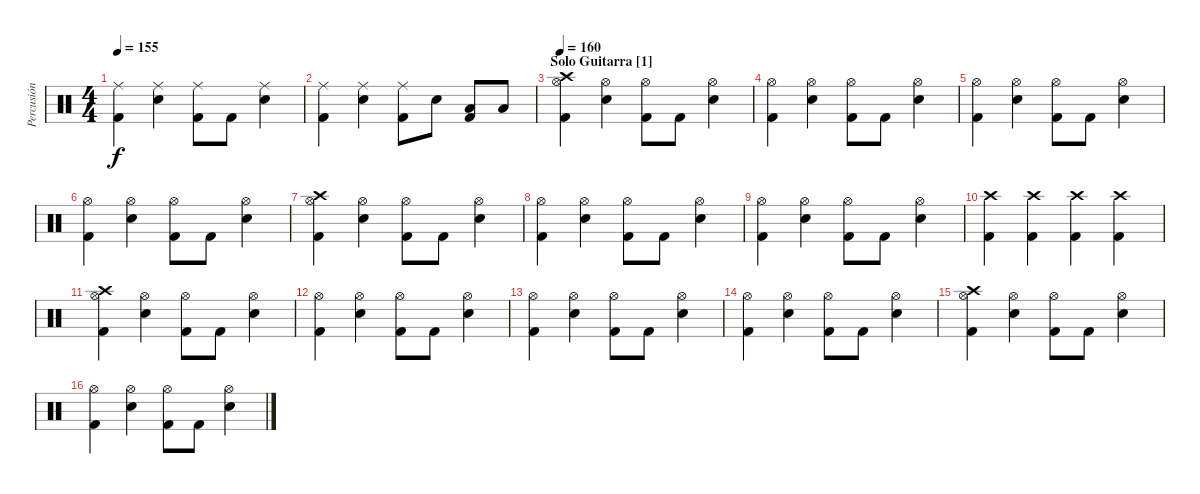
\track ("Percusión" "Percusión") {instrument percussion}
\staff {score}
\articulation defaults
\ts (4 4)
\tempo 155
\clef neutral
\ks c
("Ride (middle)" "Kick (hit) 2").4{dy f} ("Ride (middle)" "Snare (hit) 2").4 ("Ride (middle)" "Kick (hit) 2").8 "Kick (hit) 2".8 ("Ride (middle)" "Snare (hit) 2").4 |
("Ride (middle)" "Kick (hit) 2").4 ("Ride (middle)" "Snare (hit) 2").4 ("Ride (middle)" "Kick (hit) 2").8 "Snare (hit) 2".8 ("Low Floor Tom (hit)" "Kick (hit) 2").8 "Low Floor Tom (hit)".8 |
\section ("" "Solo Guitarra [1]")
\tempo 160
("Crash high (hit)" "Hi-Hat (open)" "Kick (hit) 2").4 ("Hi-Hat (open)" "Snare (hit) 2").4 ("Hi-Hat (open)" "Kick (hit) 2").8 "Kick (hit) 2".8 ("Hi-Hat (open)" "Snare (hit) 2").4 |
("Hi-Hat (open)" "Kick (hit) 2").4 ("Hi-Hat (open)" "Snare (hit) 2").4 ("Hi-Hat (open)" "Kick (hit) 2").8 "Kick (hit) 2".8 ("Hi-Hat (open)" "Snare (hit) 2").4 |
("Hi-Hat (open)" "Kick (hit) 2").4 ("Hi-Hat (open)" "Snare (hit) 2").4 ("Hi-Hat (open)" "Kick (hit) 2").8 "Kick (hit) 2".8 ("Hi-Hat (open)" "Snare (hit) 2").4 |
("Hi-Hat (open)" "Kick (hit) 2").4 ("Hi-Hat (open)" "Snare (hit) 2").4 ("Hi-Hat (open)" "Kick (hit) 2").8 "Kick (hit) 2".8 ("Hi-Hat (open)" "Snare (hit) 2").4 |
("Crash high (hit)" "Hi-Hat (open)" "Kick (hit) 2").4 ("Hi-Hat (open)" "Snare (hit) 2").4 ("Hi-Hat (open)" "Kick (hit) 2").8 "Kick (hit) 2".8 ("Hi-Hat (open)" "Snare (hit) 2").4 |
("Hi-Hat (open)" "Kick (hit) 2").4 ("Hi-Hat (open)" "Snare (hit) 2").4 ("Hi-Hat (open)" "Kick (hit) 2").8 "Kick (hit) 2".8 ("Hi-Hat (open)" "Snare (hit) 2").4 |
("Hi-Hat (open)" "Kick (hit) 2").4 ("Hi-Hat (open)" "Snare (hit) 2").4 ("Hi-Hat (open)" "Kick (hit) 2").8 "Kick (hit) 2".8 ("Hi-Hat (open)" "Snare (hit) 2").4 |
("Crash high (hit)" "Kick (hit) 2").4 ("Crash high (hit)" "Kick (hit) 2").4 ("Crash high (hit)" "Kick (hit) 2").4 ("Crash high (hit)" "Kick (hit) 2").4 |
("Crash high (hit)" "Hi-Hat (open)" "Kick (hit) 2").4 ("Hi-Hat (open)" "Snare (hit) 2").4 ("Hi-Hat (open)" "Kick (hit) 2").8 "Kick (hit) 2".8 ("Hi-Hat (open)" "Snare (hit) 2").4 |
("Hi-Hat (open)" "Kick (hit) 2").4 ("Hi-Hat (open)" "Snare (hit) 2").4 ("Hi-Hat (open)" "Kick (hit) 2").8 "Kick (hit) 2".8 ("Hi-Hat (open)" "Snare (hit) 2").4 |
("Hi-Hat (open)" "Kick (hit) 2").4 ("Hi-Hat (open)" "Snare (hit) 2").4 ("Hi-Hat (open)" "Kick (hit) 2").8 "Kick (hit) 2".8 ("Hi-Hat (open)" "Snare (hit) 2").4 |
("Hi-Hat (open)" "Kick (hit) 2").4 ("Hi-Hat (open)" "Snare (hit) 2").4 ("Hi-Hat (open)" "Kick (hit) 2").8 "Kick (hit) 2".8 ("Hi-Hat (open)" "Snare (hit) 2").4 |
("Crash high (hit)" "Hi-Hat (open)" "Kick (hit) 2").4 ("Hi-Hat (open)" "Snare (hit) 2").4 ("Hi-Hat (open)" "Kick (hit) 2").8 "Kick (hit) 2".8 ("Hi-Hat (open)" "Snare (hit) 2").4 |
("Hi-Hat (open)" "Kick (hit) 2").4 ("Hi-Hat (open)" "Snare (hit) 2").4 ("Hi-Hat (open)" "Kick (hit) 2").8 "Kick (hit) 2".8 ("Hi-Hat (open)" "Snare (hit) 2").4
